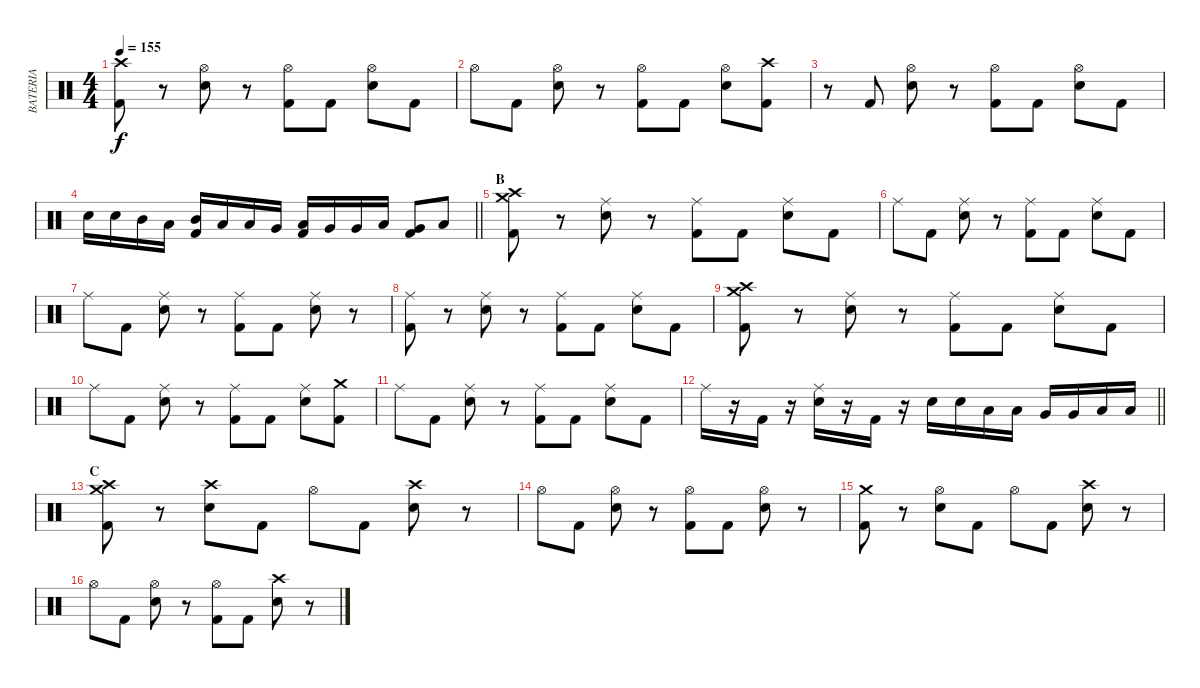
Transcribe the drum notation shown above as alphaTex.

\track ("BATERIA" "BATERIA") {instrument percussion}
\staff {score}
\articulation defaults
\ts (4 4)
\tempo 155
\clef neutral
\ks c
("Kick (hit) 2" "Crash high (hit)").8{dy f} r.8 ("Electric Snare (hit)" "Hi-Hat (open)").8 r.8 ("Kick (hit) 2" "Hi-Hat (open)").8 "Kick (hit) 2".8 ("Electric Snare (hit)" "Hi-Hat (open)").8 "Kick (hit) 2".8 |
"Hi-Hat (open)".8 "Kick (hit) 2".8 ("Electric Snare (hit)" "Hi-Hat (open)").8 r.8 ("Kick (hit) 2" "Hi-Hat (open)").8 "Kick (hit) 2".8 ("Electric Snare (hit)" "Hi-Hat (open)").8 ("Kick (hit) 2" "Crash high (hit)").8 |
r.8 "Kick (hit) 2".8 ("Electric Snare (hit)" "Hi-Hat (open)").8 r.8 ("Kick (hit) 2" "Hi-Hat (open)").8 "Kick (hit) 2".8 ("Electric Snare (hit)" "Hi-Hat (open)").8 "Kick (hit) 2".8 |
\barLineRight lightlight "Electric Snare (hit)".16 "Electric Snare (hit)".16 "Mid Tom (hit)".16 "Low Tom (hit)".16
("Kick (hit) 2" "Mid Tom (hit)").16 "Low Tom (hit)".16 "Low Tom (hit)".16 "Very Low Tom (hit)".16 ("Kick (hit) 2" "Low Tom (hit)").16 "Very Low Tom (hit)".16 "Very Low Tom (hit)".16 "Low Floor Tom (hit)".16 ("Kick (hit) 2" "Very Low Tom (hit)").8 "Low Floor Tom (hit)".8 |
\section ("" "B")
("Kick (hit) 2" "Crash high (hit)" "Crash medium (hit)").8 r.8 ("Ride (middle)" "Electric Snare (hit)").8 r.8 ("Kick (hit) 2" "Ride (middle)").8 "Kick (hit) 2".8 ("Ride (middle)" "Electric Snare (hit)").8 "Kick (hit) 2".8 |
"Ride (middle)".8 "Kick (hit) 2".8 ("Ride (middle)" "Electric Snare (hit)").8 r.8 ("Kick (hit) 2" "Ride (middle)").8 "Kick (hit) 2".8 ("Ride (middle)" "Electric Snare (hit)").8 "Kick (hit) 2".8 |
"Ride (middle)".8 "Kick (hit) 2".8 ("Ride (middle)" "Electric Snare (hit)").8 r.8 ("Kick (hit) 2" "Ride (middle)").8 "Kick (hit) 2".8 ("Ride (middle)" "Electric Snare (hit)").8 r.8 |
("Kick (hit) 2" "Ride (middle)").8 r.8 ("Ride (middle)" "Electric Snare (hit)").8 r.8 ("Kick (hit) 2" "Ride (middle)").8 "Kick (hit) 2".8 ("Ride (middle)" "Electric Snare (hit)").8 "Kick (hit) 2".8 |
("Kick (hit) 2" "Crash high (hit)" "Crash medium (hit)").8 r.8 ("Ride (middle)" "Electric Snare (hit)").8 r.8 ("Kick (hit) 2" "Ride (middle)").8 "Kick (hit) 2".8 ("Ride (middle)" "Electric Snare (hit)").8 "Kick (hit) 2".8 |
"Ride (middle)".8 "Kick (hit) 2".8 ("Ride (middle)" "Electric Snare (hit)").8 r.8 ("Kick (hit) 2" "Ride (middle)").8 "Kick (hit) 2".8 ("Ride (middle)" "Electric Snare (hit)").8 ("Kick (hit) 2" "Crash medium (hit)").8 |
"Ride (middle)".8 "Kick (hit) 2".8 ("Ride (middle)" "Electric Snare (hit)").8 r.8 ("Kick (hit) 2" "Ride (middle)").8 "Kick (hit) 2".8 ("Ride (middle)" "Electric Snare (hit)").8 "Kick (hit) 2".8 |
\barLineRight lightlight "Ride (middle)".16
r.16 "Kick (hit) 2".16 r.16 ("Ride (middle)" "Electric Snare (hit)").16 r.16 "Kick (hit) 2".16 r.16 "Electric Snare (hit)".16 "Electric Snare (hit)".16 "Low Tom (hit)".16 "Low Tom (hit)".16 "Very Low Tom (hit)".16 "Very Low Tom (hit)".16 "Low Floor Tom (hit)".16 "Low Floor Tom (hit)".16 |
\section ("" "C")
("Kick (hit) 2" "Crash high (hit)" "Crash medium (hit)").8 r.8 ("Electric Snare (hit)" "Crash high (hit)").8 "Kick (hit) 2".8 "Hi-Hat (open)".8 "Kick (hit) 2".8 ("Electric Snare (hit)" "Crash high (hit)").8 r.8 |
"Hi-Hat (open)".8 "Kick (hit) 2".8 ("Hi-Hat (open)" "Electric Snare (hit)").8 r.8 ("Kick (hit) 2" "Hi-Hat (open)").8 "Kick (hit) 2".8 ("Hi-Hat (open)" "Electric Snare (hit)").8 r.8 |
("Kick (hit) 2" "Crash medium (hit)").8 r.8 ("Hi-Hat (open)" "Electric Snare (hit)").8 "Kick (hit) 2".8 "Hi-Hat (open)".8 "Kick (hit) 2".8 ("Electric Snare (hit)" "Crash high (hit)").8 r.8 |
"Hi-Hat (open)".8 "Kick (hit) 2".8 ("Hi-Hat (open)" "Electric Snare (hit)").8 r.8 ("Kick (hit) 2" "Hi-Hat (open)").8 "Kick (hit) 2".8 ("Electric Snare (hit)" "Crash high (hit)").8 r.8
